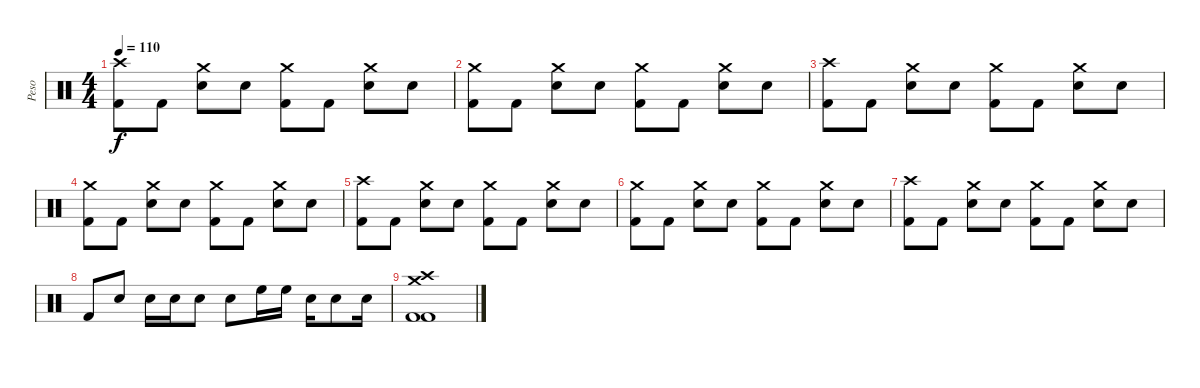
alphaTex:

\track ("Peso" "Peso") {instrument percussion}
\staff {score}
\articulation defaults
\ts (4 4)
\tempo 110
\clef neutral
\ks c
("Crash high (hit)" "Kick (hit) 2").8{dy f} "Kick (hit) 2".8 ("Crash medium (hit)" "Snare (hit) 2").8 "Snare (hit) 2".8 ("Crash medium (hit)" "Kick (hit) 2").8 "Kick (hit) 2".8 ("Crash medium (hit)" "Snare (hit) 2").8 "Snare (hit) 2".8 |
("Crash medium (hit)" "Kick (hit) 2").8 "Kick (hit) 2".8 ("Crash medium (hit)" "Snare (hit) 2").8 "Snare (hit) 2".8 ("Crash medium (hit)" "Kick (hit) 2").8 "Kick (hit) 2".8 ("Crash medium (hit)" "Snare (hit) 2").8 "Snare (hit) 2".8 |
("Crash high (hit)" "Kick (hit) 2").8 "Kick (hit) 2".8 ("Crash medium (hit)" "Snare (hit) 2").8 "Snare (hit) 2".8 ("Crash medium (hit)" "Kick (hit) 2").8 "Kick (hit) 2".8 ("Crash medium (hit)" "Snare (hit) 2").8 "Snare (hit) 2".8 |
("Crash medium (hit)" "Kick (hit) 2").8 "Kick (hit) 2".8 ("Crash medium (hit)" "Snare (hit) 2").8 "Snare (hit) 2".8 ("Crash medium (hit)" "Kick (hit) 2").8 "Kick (hit) 2".8 ("Crash medium (hit)" "Snare (hit) 2").8 "Snare (hit) 2".8 |
("Crash high (hit)" "Kick (hit) 2").8 "Kick (hit) 2".8 ("Crash medium (hit)" "Snare (hit) 2").8 "Snare (hit) 2".8 ("Crash medium (hit)" "Kick (hit) 2").8 "Kick (hit) 2".8 ("Crash medium (hit)" "Snare (hit) 2").8 "Snare (hit) 2".8 |
("Crash medium (hit)" "Kick (hit) 2").8 "Kick (hit) 2".8 ("Crash medium (hit)" "Snare (hit) 2").8 "Snare (hit) 2".8 ("Crash medium (hit)" "Kick (hit) 2").8 "Kick (hit) 2".8 ("Crash medium (hit)" "Snare (hit) 2").8 "Snare (hit) 2".8 |
("Crash high (hit)" "Kick (hit) 2").8 "Kick (hit) 2".8 ("Crash medium (hit)" "Snare (hit) 2").8 "Snare (hit) 2".8 ("Crash medium (hit)" "Kick (hit) 2").8 "Kick (hit) 2".8 ("Crash medium (hit)" "Snare (hit) 2").8 "Snare (hit) 2".8 |
"Kick (hit) 2".8 "Snare (hit) 2".8 "Snare (hit) 2".16 "Snare (hit) 2".16 "Snare (hit) 2".8 "Snare (hit) 2".8 "High Floor Tom (hit)".16 "High Floor Tom (hit)".16 "Snare (hit) 2".16 "Snare (hit) 2".8 "Snare (hit) 2".16 |
("Crash high (hit)" "Crash medium (hit)" "Kick (hit) 2" "Kick (hit) 2").1
